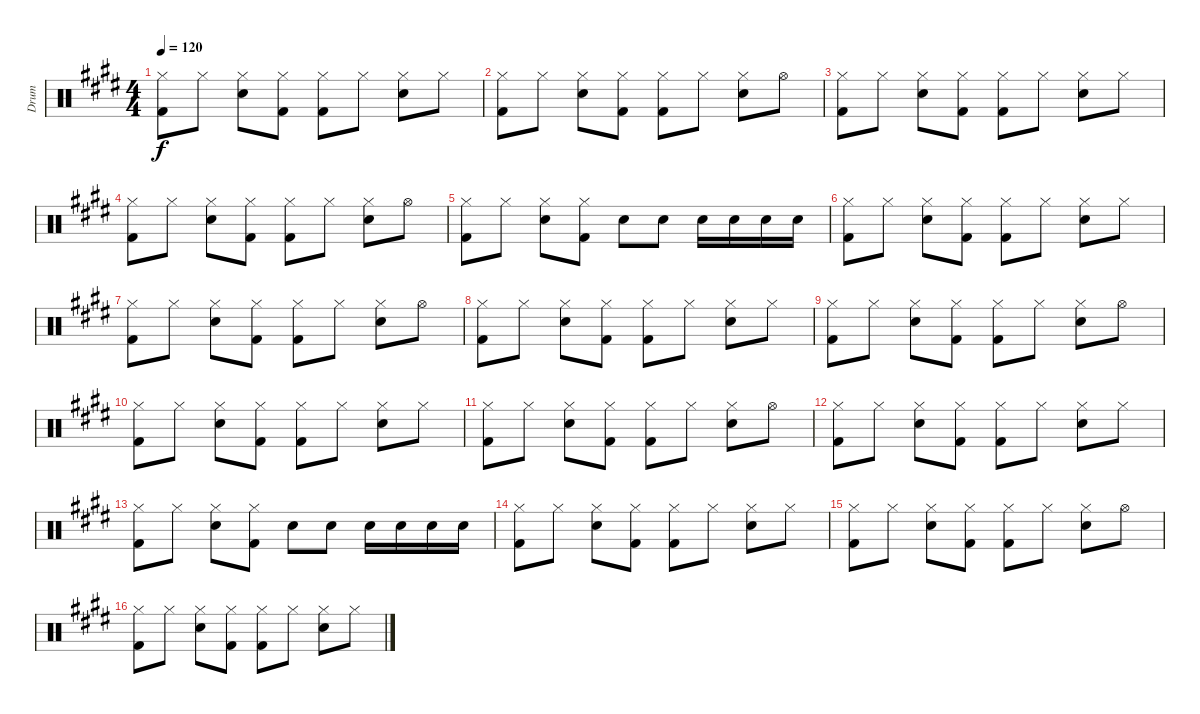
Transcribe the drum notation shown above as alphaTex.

\track ("Drum" "Drum") {instrument percussion}
\staff {score}
\articulation defaults
\ts (4 4)
\tempo 120
\clef neutral
\ks e
("Hi-Hat (closed)" "Kick (hit) 2").8{dy f} "Hi-Hat (closed)".8 ("Hi-Hat (closed)" "Snare (hit) 2").8 ("Hi-Hat (closed)" "Kick (hit) 2").8 ("Hi-Hat (closed)" "Kick (hit) 2").8 "Hi-Hat (closed)".8 ("Hi-Hat (closed)" "Snare (hit) 2").8 "Hi-Hat (closed)".8 |
("Hi-Hat (closed)" "Kick (hit) 2").8 "Hi-Hat (closed)".8 ("Hi-Hat (closed)" "Snare (hit) 2").8 ("Hi-Hat (closed)" "Kick (hit) 2").8 ("Hi-Hat (closed)" "Kick (hit) 2").8 "Hi-Hat (closed)".8 ("Hi-Hat (closed)" "Snare (hit) 2").8 "Hi-Hat (open)".8 |
("Hi-Hat (closed)" "Kick (hit) 2").8 "Hi-Hat (closed)".8 ("Hi-Hat (closed)" "Snare (hit) 2").8 ("Hi-Hat (closed)" "Kick (hit) 2").8 ("Hi-Hat (closed)" "Kick (hit) 2").8 "Hi-Hat (closed)".8 ("Hi-Hat (closed)" "Snare (hit) 2").8 "Hi-Hat (closed)".8 |
("Hi-Hat (closed)" "Kick (hit) 2").8 "Hi-Hat (closed)".8 ("Hi-Hat (closed)" "Snare (hit) 2").8 ("Hi-Hat (closed)" "Kick (hit) 2").8 ("Hi-Hat (closed)" "Kick (hit) 2").8 "Hi-Hat (closed)".8 ("Hi-Hat (closed)" "Snare (hit) 2").8 "Hi-Hat (open)".8 |
("Hi-Hat (closed)" "Kick (hit) 2").8 "Hi-Hat (closed)".8 ("Hi-Hat (closed)" "Snare (hit) 2").8 ("Hi-Hat (closed)" "Kick (hit) 2").8 "Snare (hit) 2".8 "Snare (hit) 2".8 "Snare (hit) 2".16 "Snare (hit) 2".16 "Snare (hit) 2".16 "Snare (hit) 2".16 |
("Hi-Hat (closed)" "Kick (hit) 2").8 "Hi-Hat (closed)".8 ("Hi-Hat (closed)" "Snare (hit) 2").8 ("Hi-Hat (closed)" "Kick (hit) 2").8 ("Hi-Hat (closed)" "Kick (hit) 2").8 "Hi-Hat (closed)".8 ("Hi-Hat (closed)" "Snare (hit) 2").8 "Hi-Hat (closed)".8 |
("Hi-Hat (closed)" "Kick (hit) 2").8 "Hi-Hat (closed)".8 ("Hi-Hat (closed)" "Snare (hit) 2").8 ("Hi-Hat (closed)" "Kick (hit) 2").8 ("Hi-Hat (closed)" "Kick (hit) 2").8 "Hi-Hat (closed)".8 ("Hi-Hat (closed)" "Snare (hit) 2").8 "Hi-Hat (open)".8 |
("Hi-Hat (closed)" "Kick (hit) 2").8 "Hi-Hat (closed)".8 ("Hi-Hat (closed)" "Snare (hit) 2").8 ("Hi-Hat (closed)" "Kick (hit) 2").8 ("Hi-Hat (closed)" "Kick (hit) 2").8 "Hi-Hat (closed)".8 ("Hi-Hat (closed)" "Snare (hit) 2").8 "Hi-Hat (closed)".8 |
("Hi-Hat (closed)" "Kick (hit) 2").8 "Hi-Hat (closed)".8 ("Hi-Hat (closed)" "Snare (hit) 2").8 ("Hi-Hat (closed)" "Kick (hit) 2").8 ("Hi-Hat (closed)" "Kick (hit) 2").8 "Hi-Hat (closed)".8 ("Hi-Hat (closed)" "Snare (hit) 2").8 "Hi-Hat (open)".8 |
("Hi-Hat (closed)" "Kick (hit) 2").8 "Hi-Hat (closed)".8 ("Hi-Hat (closed)" "Snare (hit) 2").8 ("Hi-Hat (closed)" "Kick (hit) 2").8 ("Hi-Hat (closed)" "Kick (hit) 2").8 "Hi-Hat (closed)".8 ("Hi-Hat (closed)" "Snare (hit) 2").8 "Hi-Hat (closed)".8 |
("Hi-Hat (closed)" "Kick (hit) 2").8 "Hi-Hat (closed)".8 ("Hi-Hat (closed)" "Snare (hit) 2").8 ("Hi-Hat (closed)" "Kick (hit) 2").8 ("Hi-Hat (closed)" "Kick (hit) 2").8 "Hi-Hat (closed)".8 ("Hi-Hat (closed)" "Snare (hit) 2").8 "Hi-Hat (open)".8 |
("Hi-Hat (closed)" "Kick (hit) 2").8 "Hi-Hat (closed)".8 ("Hi-Hat (closed)" "Snare (hit) 2").8 ("Hi-Hat (closed)" "Kick (hit) 2").8 ("Hi-Hat (closed)" "Kick (hit) 2").8 "Hi-Hat (closed)".8 ("Hi-Hat (closed)" "Snare (hit) 2").8 "Hi-Hat (closed)".8 |
("Hi-Hat (closed)" "Kick (hit) 2").8 "Hi-Hat (closed)".8 ("Hi-Hat (closed)" "Snare (hit) 2").8 ("Hi-Hat (closed)" "Kick (hit) 2").8 "Snare (hit) 2".8 "Snare (hit) 2".8 "Snare (hit) 2".16 "Snare (hit) 2".16 "Snare (hit) 2".16 "Snare (hit) 2".16 |
("Hi-Hat (closed)" "Kick (hit) 2").8 "Hi-Hat (closed)".8 ("Hi-Hat (closed)" "Snare (hit) 2").8 ("Hi-Hat (closed)" "Kick (hit) 2").8 ("Hi-Hat (closed)" "Kick (hit) 2").8 "Hi-Hat (closed)".8 ("Hi-Hat (closed)" "Snare (hit) 2").8 "Hi-Hat (closed)".8 |
("Hi-Hat (closed)" "Kick (hit) 2").8 "Hi-Hat (closed)".8 ("Hi-Hat (closed)" "Snare (hit) 2").8 ("Hi-Hat (closed)" "Kick (hit) 2").8 ("Hi-Hat (closed)" "Kick (hit) 2").8 "Hi-Hat (closed)".8 ("Hi-Hat (closed)" "Snare (hit) 2").8 "Hi-Hat (open)".8 |
("Hi-Hat (closed)" "Kick (hit) 2").8 "Hi-Hat (closed)".8 ("Hi-Hat (closed)" "Snare (hit) 2").8 ("Hi-Hat (closed)" "Kick (hit) 2").8 ("Hi-Hat (closed)" "Kick (hit) 2").8 "Hi-Hat (closed)".8 ("Hi-Hat (closed)" "Snare (hit) 2").8 "Hi-Hat (closed)".8
